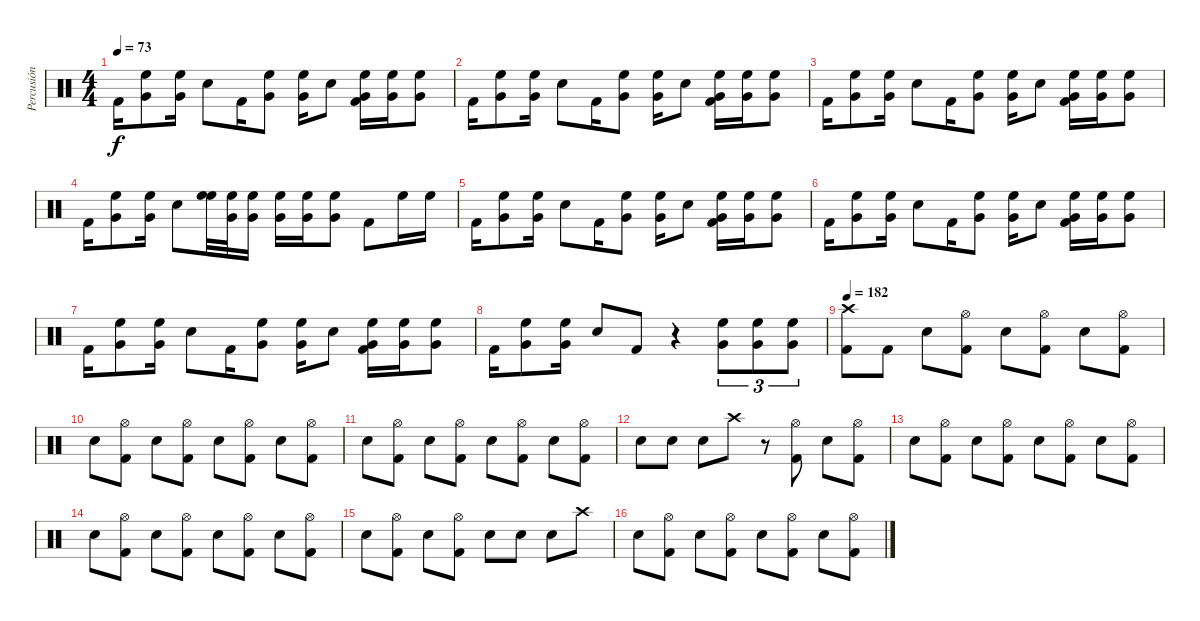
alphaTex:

\track ("Percusión" "Percusión") {instrument percussion}
\staff {score}
\articulation defaults
\ts (4 4)
\tempo 73
\clef neutral
\ks c "Kick (hit) 2".16{dy f}
("Very Low Tom (hit)" "High Floor Tom (hit)").8 ("Very Low Tom (hit)" "High Floor Tom (hit)").16 "Electric Snare (hit)".8 "Kick (hit) 2".16 ("Very Low Tom (hit)" "High Floor Tom (hit)").8 ("Very Low Tom (hit)" "High Floor Tom (hit)").16 "Electric Snare (hit)".8 ("Very Low Tom (hit)" "High Floor Tom (hit)" "Kick (hit) 2").16 ("Very Low Tom (hit)" "High Floor Tom (hit)").16 ("Very Low Tom (hit)" "High Floor Tom (hit)").8 |
"Kick (hit) 2".16 ("Very Low Tom (hit)" "High Floor Tom (hit)").8 ("Very Low Tom (hit)" "High Floor Tom (hit)").16 "Electric Snare (hit)".8 "Kick (hit) 2".16 ("Very Low Tom (hit)" "High Floor Tom (hit)").8 ("Very Low Tom (hit)" "High Floor Tom (hit)").16 "Electric Snare (hit)".8 ("Very Low Tom (hit)" "High Floor Tom (hit)" "Kick (hit) 2").16 ("Very Low Tom (hit)" "High Floor Tom (hit)").16 ("Very Low Tom (hit)" "High Floor Tom (hit)").8 |
"Kick (hit) 2".16 ("Very Low Tom (hit)" "High Floor Tom (hit)").8 ("Very Low Tom (hit)" "High Floor Tom (hit)").16 "Electric Snare (hit)".8 "Kick (hit) 2".16 ("Very Low Tom (hit)" "High Floor Tom (hit)").8 ("Very Low Tom (hit)" "High Floor Tom (hit)").16 "Electric Snare (hit)".8 ("Very Low Tom (hit)" "High Floor Tom (hit)" "Kick (hit) 2").16 ("Very Low Tom (hit)" "High Floor Tom (hit)").16 ("Very Low Tom (hit)" "High Floor Tom (hit)").8 |
"Kick (hit) 2".16 ("Very Low Tom (hit)" "High Floor Tom (hit)").8 ("Very Low Tom (hit)" "High Floor Tom (hit)").16 "Electric Snare (hit)".8 ("High Floor Tom (hit)" "High Floor Tom (hit)").32 ("Very Low Tom (hit)" "High Floor Tom (hit)").32 ("Very Low Tom (hit)" "High Floor Tom (hit)").16 ("Very Low Tom (hit)" "High Floor Tom (hit)").16 ("Very Low Tom (hit)" "High Floor Tom (hit)").16 ("Very Low Tom (hit)" "High Floor Tom (hit)").8 "Kick (hit) 2".8 "High Floor Tom (hit)".16 "High Floor Tom (hit)".16 |
"Kick (hit) 2".16 ("Very Low Tom (hit)" "High Floor Tom (hit)").8 ("Very Low Tom (hit)" "High Floor Tom (hit)").16 "Electric Snare (hit)".8 "Kick (hit) 2".16 ("Very Low Tom (hit)" "High Floor Tom (hit)").8 ("Very Low Tom (hit)" "High Floor Tom (hit)").16 "Electric Snare (hit)".8 ("Very Low Tom (hit)" "High Floor Tom (hit)" "Kick (hit) 2").16 ("Very Low Tom (hit)" "High Floor Tom (hit)").16 ("Very Low Tom (hit)" "High Floor Tom (hit)").8 |
"Kick (hit) 2".16 ("Very Low Tom (hit)" "High Floor Tom (hit)").8 ("Very Low Tom (hit)" "High Floor Tom (hit)").16 "Electric Snare (hit)".8 "Kick (hit) 2".16 ("Very Low Tom (hit)" "High Floor Tom (hit)").8 ("Very Low Tom (hit)" "High Floor Tom (hit)").16 "Electric Snare (hit)".8 ("Very Low Tom (hit)" "High Floor Tom (hit)" "Kick (hit) 2").16 ("Very Low Tom (hit)" "High Floor Tom (hit)").16 ("Very Low Tom (hit)" "High Floor Tom (hit)").8 |
"Kick (hit) 2".16 ("Very Low Tom (hit)" "High Floor Tom (hit)").8 ("Very Low Tom (hit)" "High Floor Tom (hit)").16 "Electric Snare (hit)".8 "Kick (hit) 2".16 ("Very Low Tom (hit)" "High Floor Tom (hit)").8 ("Very Low Tom (hit)" "High Floor Tom (hit)").16 "Electric Snare (hit)".8 ("Very Low Tom (hit)" "High Floor Tom (hit)" "Kick (hit) 2").16 ("Very Low Tom (hit)" "High Floor Tom (hit)").16 ("Very Low Tom (hit)" "High Floor Tom (hit)").8 |
"Kick (hit) 2".16 ("Very Low Tom (hit)" "High Floor Tom (hit)").8 ("Very Low Tom (hit)" "High Floor Tom (hit)").16 "Electric Snare (hit)".8 "Kick (hit) 2".8 r.4 ("Very Low Tom (hit)" "High Floor Tom (hit)").8{tu (3 2)} ("Very Low Tom (hit)" "High Floor Tom (hit)").8{tu (3 2)} ("Very Low Tom (hit)" "High Floor Tom (hit)").8{tu (3 2)} |
\tempo 185
\tempo 182
("Crash high (hit)" "Kick (hit) 2").8 "Kick (hit) 2".8 "Electric Snare (hit)".8 ("Hi-Hat (open)" "Kick (hit) 2").8 "Electric Snare (hit)".8 ("Hi-Hat (open)" "Kick (hit) 2").8 "Electric Snare (hit)".8 ("Hi-Hat (open)" "Kick (hit) 2").8 |
"Electric Snare (hit)".8 ("Hi-Hat (open)" "Kick (hit) 2").8 "Electric Snare (hit)".8 ("Hi-Hat (open)" "Kick (hit) 2").8 "Electric Snare (hit)".8 ("Hi-Hat (open)" "Kick (hit) 2").8 "Electric Snare (hit)".8 ("Hi-Hat (open)" "Kick (hit) 2").8 |
"Electric Snare (hit)".8 ("Hi-Hat (open)" "Kick (hit) 2").8 "Electric Snare (hit)".8 ("Hi-Hat (open)" "Kick (hit) 2").8 "Electric Snare (hit)".8 ("Hi-Hat (open)" "Kick (hit) 2").8 "Electric Snare (hit)".8 ("Hi-Hat (open)" "Kick (hit) 2").8 |
"Electric Snare (hit)".8 "Electric Snare (hit)".8 "Electric Snare (hit)".8 "Crash high (hit)".8 r.8 ("Hi-Hat (open)" "Kick (hit) 2").8 "Electric Snare (hit)".8 ("Hi-Hat (open)" "Kick (hit) 2").8 |
"Electric Snare (hit)".8 ("Hi-Hat (open)" "Kick (hit) 2").8 "Electric Snare (hit)".8 ("Hi-Hat (open)" "Kick (hit) 2").8 "Electric Snare (hit)".8 ("Hi-Hat (open)" "Kick (hit) 2").8 "Electric Snare (hit)".8 ("Hi-Hat (open)" "Kick (hit) 2").8 |
"Electric Snare (hit)".8 ("Hi-Hat (open)" "Kick (hit) 2").8 "Electric Snare (hit)".8 ("Hi-Hat (open)" "Kick (hit) 2").8 "Electric Snare (hit)".8 ("Hi-Hat (open)" "Kick (hit) 2").8 "Electric Snare (hit)".8 ("Hi-Hat (open)" "Kick (hit) 2").8 |
"Electric Snare (hit)".8 ("Hi-Hat (open)" "Kick (hit) 2").8 "Electric Snare (hit)".8 ("Hi-Hat (open)" "Kick (hit) 2").8 "Electric Snare (hit)".8 "Electric Snare (hit)".8 "Electric Snare (hit)".8 "Crash high (hit)".8 |
"Electric Snare (hit)".8 ("Hi-Hat (open)" "Kick (hit) 2").8 "Electric Snare (hit)".8 ("Hi-Hat (open)" "Kick (hit) 2").8 "Electric Snare (hit)".8 ("Hi-Hat (open)" "Kick (hit) 2").8 "Electric Snare (hit)".8 ("Hi-Hat (open)" "Kick (hit) 2").8
